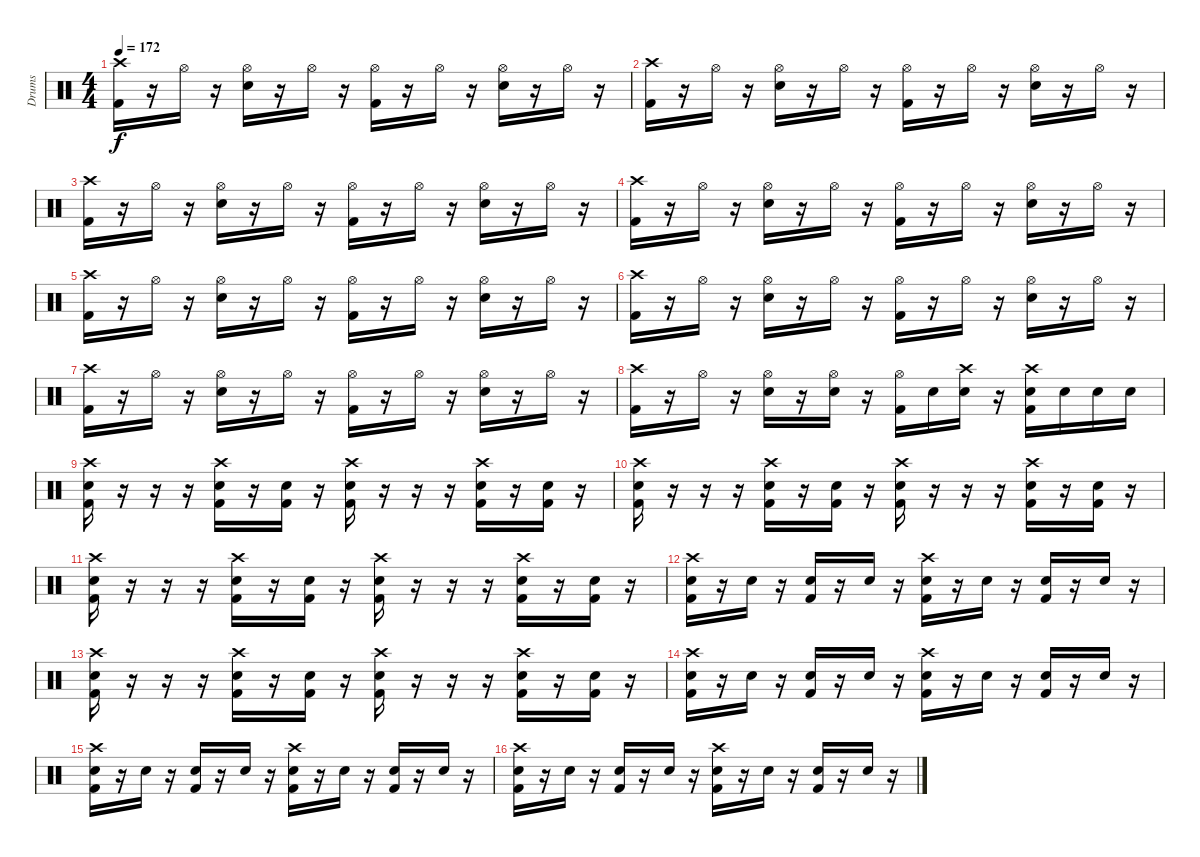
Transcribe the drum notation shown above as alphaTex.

\track ("Drums" "Drums") {instrument percussion}
\staff {score}
\articulation defaults
\ts (4 4)
\tempo 172
\clef neutral
\ks c
("Crash high (hit)" "Kick (hit) 2").16{dy f} r.16 "Hi-Hat (open)".16 r.16 ("Hi-Hat (open)" "Electric Snare (hit)").16 r.16 "Hi-Hat (open)".16 r.16 ("Hi-Hat (open)" "Kick (hit) 2").16 r.16 "Hi-Hat (open)".16 r.16 ("Hi-Hat (open)" "Electric Snare (hit)").16 r.16 "Hi-Hat (open)".16 r.16 |
("Crash high (hit)" "Kick (hit) 2").16 r.16 "Hi-Hat (open)".16 r.16 ("Hi-Hat (open)" "Electric Snare (hit)").16 r.16 "Hi-Hat (open)".16 r.16 ("Hi-Hat (open)" "Kick (hit) 2").16 r.16 "Hi-Hat (open)".16 r.16 ("Hi-Hat (open)" "Electric Snare (hit)").16 r.16 "Hi-Hat (open)".16 r.16 |
("Crash high (hit)" "Kick (hit) 2").16 r.16 "Hi-Hat (open)".16 r.16 ("Hi-Hat (open)" "Electric Snare (hit)").16 r.16 "Hi-Hat (open)".16 r.16 ("Hi-Hat (open)" "Kick (hit) 2").16 r.16 "Hi-Hat (open)".16 r.16 ("Hi-Hat (open)" "Electric Snare (hit)").16 r.16 "Hi-Hat (open)".16 r.16 |
("Crash high (hit)" "Kick (hit) 2").16 r.16 "Hi-Hat (open)".16 r.16 ("Hi-Hat (open)" "Electric Snare (hit)").16 r.16 "Hi-Hat (open)".16 r.16 ("Hi-Hat (open)" "Kick (hit) 2").16 r.16 "Hi-Hat (open)".16 r.16 ("Hi-Hat (open)" "Electric Snare (hit)").16 r.16 "Hi-Hat (open)".16 r.16 |
("Crash high (hit)" "Kick (hit) 2").16 r.16 "Hi-Hat (open)".16 r.16 ("Hi-Hat (open)" "Electric Snare (hit)").16 r.16 "Hi-Hat (open)".16 r.16 ("Hi-Hat (open)" "Kick (hit) 2").16 r.16 "Hi-Hat (open)".16 r.16 ("Hi-Hat (open)" "Electric Snare (hit)").16 r.16 "Hi-Hat (open)".16 r.16 |
("Crash high (hit)" "Kick (hit) 2").16 r.16 "Hi-Hat (open)".16 r.16 ("Hi-Hat (open)" "Electric Snare (hit)").16 r.16 "Hi-Hat (open)".16 r.16 ("Hi-Hat (open)" "Kick (hit) 2").16 r.16 "Hi-Hat (open)".16 r.16 ("Hi-Hat (open)" "Electric Snare (hit)").16 r.16 "Hi-Hat (open)".16 r.16 |
("Crash high (hit)" "Kick (hit) 2").16 r.16 "Hi-Hat (open)".16 r.16 ("Hi-Hat (open)" "Electric Snare (hit)").16 r.16 "Hi-Hat (open)".16 r.16 ("Hi-Hat (open)" "Kick (hit) 2").16 r.16 "Hi-Hat (open)".16 r.16 ("Hi-Hat (open)" "Electric Snare (hit)").16 r.16 "Hi-Hat (open)".16 r.16 |
("Crash high (hit)" "Kick (hit) 2").16 r.16 "Hi-Hat (open)".16 r.16 ("Hi-Hat (open)" "Electric Snare (hit)").16 r.16 ("Hi-Hat (open)" "Electric Snare (hit)").16 r.16 ("Hi-Hat (open)" "Kick (hit) 2").16 "Electric Snare (hit)".16 ("Crash high (hit)" "Electric Snare (hit)").16 r.16 ("Crash high (hit)" "Electric Snare (hit)" "Kick (hit) 2").16 "Electric Snare (hit)".16 "Electric Snare (hit)".16 "Electric Snare (hit)".16 |
("Crash high (hit)" "Electric Snare (hit)" "Kick (hit) 2").16 r.16 r.16 r.16 ("Crash high (hit)" "Electric Snare (hit)" "Kick (hit) 2").16 r.16 ("Electric Snare (hit)" "Kick (hit) 2").16 r.16 ("Crash high (hit)" "Electric Snare (hit)" "Kick (hit) 2").16 r.16 r.16 r.16 ("Crash high (hit)" "Electric Snare (hit)" "Kick (hit) 2").16 r.16 ("Electric Snare (hit)" "Kick (hit) 2").16 r.16 |
("Crash high (hit)" "Electric Snare (hit)" "Kick (hit) 2").16 r.16 r.16 r.16 ("Crash high (hit)" "Electric Snare (hit)" "Kick (hit) 2").16 r.16 ("Electric Snare (hit)" "Kick (hit) 2").16 r.16 ("Crash high (hit)" "Electric Snare (hit)" "Kick (hit) 2").16 r.16 r.16 r.16 ("Crash high (hit)" "Electric Snare (hit)" "Kick (hit) 2").16 r.16 ("Electric Snare (hit)" "Kick (hit) 2").16 r.16 |
("Crash high (hit)" "Electric Snare (hit)" "Kick (hit) 2").16 r.16 r.16 r.16 ("Crash high (hit)" "Electric Snare (hit)" "Kick (hit) 2").16 r.16 ("Electric Snare (hit)" "Kick (hit) 2").16 r.16 ("Crash high (hit)" "Electric Snare (hit)" "Kick (hit) 2").16 r.16 r.16 r.16 ("Crash high (hit)" "Electric Snare (hit)" "Kick (hit) 2").16 r.16 ("Electric Snare (hit)" "Kick (hit) 2").16 r.16 |
("Crash high (hit)" "Electric Snare (hit)" "Kick (hit) 2").16 r.16 "Electric Snare (hit)".16 r.16 ("Electric Snare (hit)" "Kick (hit) 2").16 r.16 "Electric Snare (hit)".16 r.16 ("Crash high (hit)" "Electric Snare (hit)" "Kick (hit) 2").16 r.16 "Electric Snare (hit)".16 r.16 ("Electric Snare (hit)" "Kick (hit) 2").16 r.16 "Electric Snare (hit)".16 r.16 |
("Crash high (hit)" "Electric Snare (hit)" "Kick (hit) 2").16 r.16 r.16 r.16 ("Crash high (hit)" "Electric Snare (hit)" "Kick (hit) 2").16 r.16 ("Electric Snare (hit)" "Kick (hit) 2").16 r.16 ("Crash high (hit)" "Electric Snare (hit)" "Kick (hit) 2").16 r.16 r.16 r.16 ("Crash high (hit)" "Electric Snare (hit)" "Kick (hit) 2").16 r.16 ("Electric Snare (hit)" "Kick (hit) 2").16 r.16 |
("Crash high (hit)" "Electric Snare (hit)" "Kick (hit) 2").16 r.16 "Electric Snare (hit)".16 r.16 ("Electric Snare (hit)" "Kick (hit) 2").16 r.16 "Electric Snare (hit)".16 r.16 ("Crash high (hit)" "Electric Snare (hit)" "Kick (hit) 2").16 r.16 "Electric Snare (hit)".16 r.16 ("Electric Snare (hit)" "Kick (hit) 2").16 r.16 "Electric Snare (hit)".16 r.16 |
("Crash high (hit)" "Electric Snare (hit)" "Kick (hit) 2").16 r.16 "Electric Snare (hit)".16 r.16 ("Electric Snare (hit)" "Kick (hit) 2").16 r.16 "Electric Snare (hit)".16 r.16 ("Crash high (hit)" "Electric Snare (hit)" "Kick (hit) 2").16 r.16 "Electric Snare (hit)".16 r.16 ("Electric Snare (hit)" "Kick (hit) 2").16 r.16 "Electric Snare (hit)".16 r.16 |
("Crash high (hit)" "Electric Snare (hit)" "Kick (hit) 2").16 r.16 "Electric Snare (hit)".16 r.16 ("Electric Snare (hit)" "Kick (hit) 2").16 r.16 "Electric Snare (hit)".16 r.16 ("Crash high (hit)" "Electric Snare (hit)" "Kick (hit) 2").16 r.16 "Electric Snare (hit)".16 r.16 ("Electric Snare (hit)" "Kick (hit) 2").16 r.16 "Electric Snare (hit)".16 r.16
